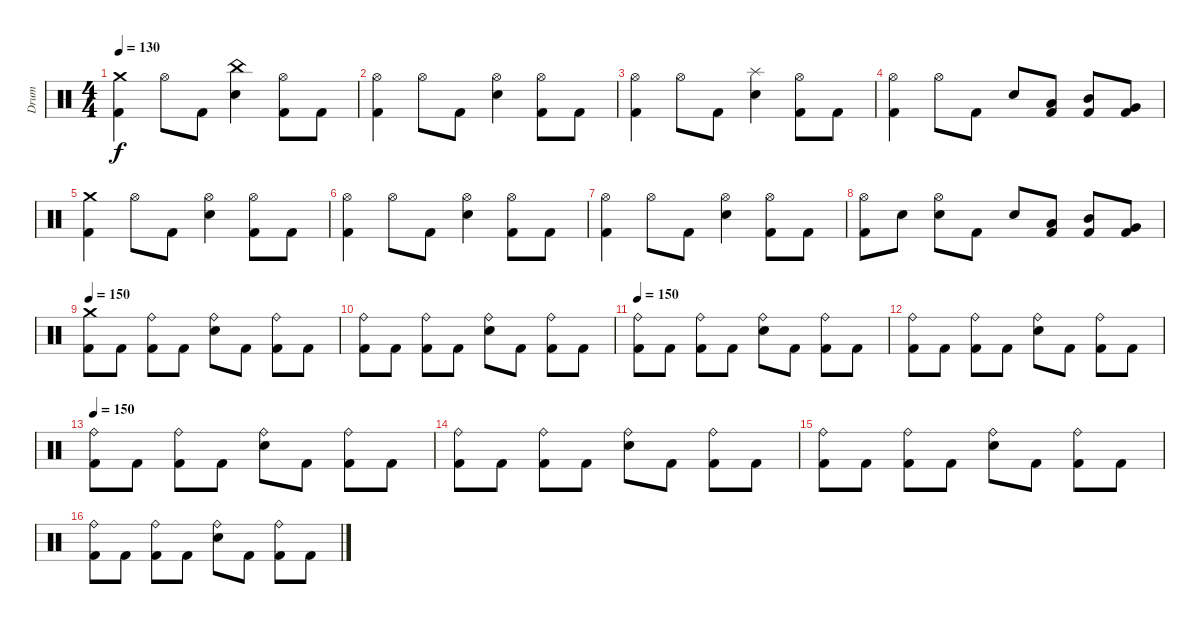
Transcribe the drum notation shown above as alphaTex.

\track ("Drum" "Drum") {instrument percussion}
\staff {score}
\articulation defaults
\ts (4 4)
\tempo 130
\clef neutral
\ks c
("Crash medium (hit)" "Kick (hit) 2").4{dy f} "Hi-Hat (open)".8 "Kick (hit) 2".8 ("China (hit)" "Electric Snare (hit)").4 ("Hi-Hat (open)" "Kick (hit) 2").8 "Kick (hit) 2".8 |
("Hi-Hat (open)" "Kick (hit) 2").4 "Hi-Hat (open)".8 "Kick (hit) 2".8 ("Hi-Hat (open)" "Electric Snare (hit)").4 ("Hi-Hat (open)" "Kick (hit) 2").8 "Kick (hit) 2".8 |
("Hi-Hat (open)" "Kick (hit) 2").4 "Hi-Hat (open)".8 "Kick (hit) 2".8 ("Splash (hit)" "Electric Snare (hit)").4 ("Hi-Hat (open)" "Kick (hit) 2").8 "Kick (hit) 2".8 |
("Hi-Hat (open)" "Kick (hit) 2").4 "Hi-Hat (open)".8 "Kick (hit) 2".8 "Electric Snare (hit)".8 ("Low Tom (hit)" "Kick (hit) 2").8 ("Mid Tom (hit)" "Kick (hit) 2").8 ("Very Low Tom (hit)" "Kick (hit) 2").8 |
("Crash medium (hit)" "Kick (hit) 2").4 "Hi-Hat (open)".8 "Kick (hit) 2".8 ("Hi-Hat (open)" "Electric Snare (hit)").4 ("Hi-Hat (open)" "Kick (hit) 2").8 "Kick (hit) 2".8 |
("Hi-Hat (open)" "Kick (hit) 2").4 "Hi-Hat (open)".8 "Kick (hit) 2".8 ("Hi-Hat (open)" "Electric Snare (hit)").4 ("Hi-Hat (open)" "Kick (hit) 2").8 "Kick (hit) 2".8 |
("Hi-Hat (open)" "Kick (hit) 2").4 "Hi-Hat (open)".8 "Kick (hit) 2".8 ("Hi-Hat (open)" "Electric Snare (hit)").4 ("Hi-Hat (open)" "Kick (hit) 2").8 "Kick (hit) 2".8 |
("Hi-Hat (open)" "Kick (hit) 2").8 "Electric Snare (hit)".8 ("Hi-Hat (open)" "Electric Snare (hit)").8 "Kick (hit) 2".8 "Electric Snare (hit)".8 ("Low Tom (hit)" "Kick (hit) 2").8 ("Mid Tom (hit)" "Kick (hit) 2").8 ("Very Low Tom (hit)" "Kick (hit) 2").8 |
\tempo 150
("Crash medium (hit)" "Kick (hit) 2").8 "Kick (hit) 2".8 ("Ride (bell)" "Kick (hit) 2").8 "Kick (hit) 2".8 ("Ride (bell)" "Electric Snare (hit)").8 "Kick (hit) 2".8 ("Ride (bell)" "Kick (hit) 2").8 "Kick (hit) 2".8 |
("Ride (bell)" "Kick (hit) 2").8 "Kick (hit) 2".8 ("Ride (bell)" "Kick (hit) 2").8 "Kick (hit) 2".8 ("Ride (bell)" "Electric Snare (hit)").8 "Kick (hit) 2".8 ("Ride (bell)" "Kick (hit) 2").8 "Kick (hit) 2".8 |
\tempo 150
("Ride (bell)" "Kick (hit) 2").8 "Kick (hit) 2".8 ("Ride (bell)" "Kick (hit) 2").8 "Kick (hit) 2".8 ("Ride (bell)" "Electric Snare (hit)").8 "Kick (hit) 2".8 ("Ride (bell)" "Kick (hit) 2").8 "Kick (hit) 2".8 |
("Ride (bell)" "Kick (hit) 2").8 "Kick (hit) 2".8 ("Ride (bell)" "Kick (hit) 2").8 "Kick (hit) 2".8 ("Ride (bell)" "Electric Snare (hit)").8 "Kick (hit) 2".8 ("Ride (bell)" "Kick (hit) 2").8 "Kick (hit) 2".8 |
\tempo 150
("Ride (bell)" "Kick (hit) 2").8 "Kick (hit) 2".8 ("Ride (bell)" "Kick (hit) 2").8 "Kick (hit) 2".8 ("Ride (bell)" "Electric Snare (hit)").8 "Kick (hit) 2".8 ("Ride (bell)" "Kick (hit) 2").8 "Kick (hit) 2".8 |
("Ride (bell)" "Kick (hit) 2").8 "Kick (hit) 2".8 ("Ride (bell)" "Kick (hit) 2").8 "Kick (hit) 2".8 ("Ride (bell)" "Electric Snare (hit)").8 "Kick (hit) 2".8 ("Ride (bell)" "Kick (hit) 2").8 "Kick (hit) 2".8 |
("Ride (bell)" "Kick (hit) 2").8 "Kick (hit) 2".8 ("Ride (bell)" "Kick (hit) 2").8 "Kick (hit) 2".8 ("Ride (bell)" "Electric Snare (hit)").8 "Kick (hit) 2".8 ("Ride (bell)" "Kick (hit) 2").8 "Kick (hit) 2".8 |
("Ride (bell)" "Kick (hit) 2").8 "Kick (hit) 2".8 ("Ride (bell)" "Kick (hit) 2").8 "Kick (hit) 2".8 ("Ride (bell)" "Electric Snare (hit)").8 "Kick (hit) 2".8 ("Ride (bell)" "Kick (hit) 2").8 "Kick (hit) 2".8
